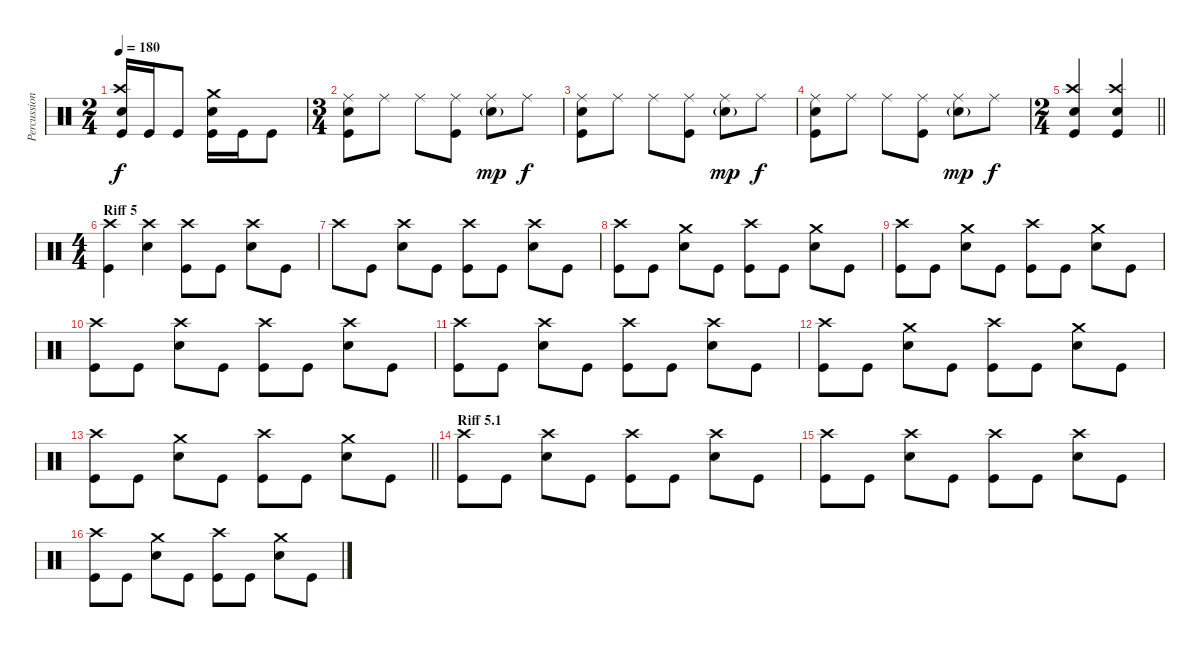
\track ("Percussion" "Percussion") {instrument percussion}
\staff {score}
\articulation defaults
\ts (2 4)
\tempo 180
\clef neutral
\ks c
("Snare (hit) 2" "Crash high (hit)" "Kick (hit)").16{dy f} "Kick (hit)".16 "Kick (hit)".8 ("Snare (hit) 2" "Crash medium (hit)" "Kick (hit)").16 "Kick (hit)".16 "Kick (hit)".8 |
\ts (3 4)
("Snare (hit) 2" "Ride (middle)" "Kick (hit)").8 "Ride (middle)".8 "Ride (middle)".8 ("Ride (middle)" "Kick (hit)").8 ("Ride (middle)" "Snare (hit) 2"{g}).8{dy mp} "Ride (middle)".8{dy f} |
("Snare (hit) 2" "Ride (middle)" "Kick (hit)").8 "Ride (middle)".8 "Ride (middle)".8 ("Ride (middle)" "Kick (hit)").8 ("Ride (middle)" "Snare (hit) 2"{g}).8{dy mp} "Ride (middle)".8{dy f} |
("Snare (hit) 2" "Ride (middle)" "Kick (hit)").8 "Ride (middle)".8 "Ride (middle)".8 ("Ride (middle)" "Kick (hit)").8 ("Ride (middle)" "Snare (hit) 2"{g}).8{dy mp} "Ride (middle)".8{dy f} |
\ts (2 4)
\barLineRight lightlight
("Kick (hit)" "Crash high (hit)" "Snare (hit) 2").4 ("Kick (hit)" "Crash high (hit)" "Snare (hit) 2").4 |
\ts (4 4)
\section ("" "Riff 5")
("Crash high (hit)" "Kick (hit)").4 ("Crash high (hit)" "Snare (hit) 2").4 ("Crash high (hit)" "Kick (hit)").8 "Kick (hit)".8 ("Crash high (hit)" "Snare (hit) 2").8 "Kick (hit)".8 |
"Crash high (hit)".8 "Kick (hit)".8 ("Snare (hit) 2" "Crash high (hit)").8 "Kick (hit)".8 ("Crash high (hit)" "Kick (hit)").8 "Kick (hit)".8 ("Crash high (hit)" "Snare (hit) 2").8 "Kick (hit)".8 |
("Crash high (hit)" "Kick (hit)").8 "Kick (hit)".8 ("Snare (hit) 2" "Crash medium (hit)").8 "Kick (hit)".8 ("Crash high (hit)" "Kick (hit)").8 "Kick (hit)".8 ("Snare (hit) 2" "Crash medium (hit)").8 "Kick (hit)".8 |
("Crash high (hit)" "Kick (hit)").8 "Kick (hit)".8 ("Snare (hit) 2" "Crash medium (hit)").8 "Kick (hit)".8 ("Crash high (hit)" "Kick (hit)").8 "Kick (hit)".8 ("Snare (hit) 2" "Crash medium (hit)").8 "Kick (hit)".8 |
("Crash high (hit)" "Kick (hit)").8 "Kick (hit)".8 ("Crash high (hit)" "Snare (hit) 2").8 "Kick (hit)".8 ("Crash high (hit)" "Kick (hit)").8 "Kick (hit)".8 ("Crash high (hit)" "Snare (hit) 2").8 "Kick (hit)".8 |
("Crash high (hit)" "Kick (hit)").8 "Kick (hit)".8 ("Crash high (hit)" "Snare (hit) 2").8 "Kick (hit)".8 ("Crash high (hit)" "Kick (hit)").8 "Kick (hit)".8 ("Crash high (hit)" "Snare (hit) 2").8 "Kick (hit)".8 |
("Crash high (hit)" "Kick (hit)").8 "Kick (hit)".8 ("Snare (hit) 2" "Crash medium (hit)").8 "Kick (hit)".8 ("Crash high (hit)" "Kick (hit)").8 "Kick (hit)".8 ("Snare (hit) 2" "Crash medium (hit)").8 "Kick (hit)".8 |
\barLineRight lightlight
("Crash high (hit)" "Kick (hit)").8 "Kick (hit)".8 ("Snare (hit) 2" "Crash medium (hit)").8 "Kick (hit)".8 ("Crash high (hit)" "Kick (hit)").8 "Kick (hit)".8 ("Snare (hit) 2" "Crash medium (hit)").8 "Kick (hit)".8 |
\section ("" "Riff 5.1")
("Crash high (hit)" "Kick (hit)").8 "Kick (hit)".8 ("Crash high (hit)" "Snare (hit) 2").8 "Kick (hit)".8 ("Crash high (hit)" "Kick (hit)").8 "Kick (hit)".8 ("Crash high (hit)" "Snare (hit) 2").8 "Kick (hit)".8 |
("Crash high (hit)" "Kick (hit)").8 "Kick (hit)".8 ("Crash high (hit)" "Snare (hit) 2").8 "Kick (hit)".8 ("Crash high (hit)" "Kick (hit)").8 "Kick (hit)".8 ("Crash high (hit)" "Snare (hit) 2").8 "Kick (hit)".8 |
("Crash high (hit)" "Kick (hit)").8 "Kick (hit)".8 ("Snare (hit) 2" "Crash medium (hit)").8 "Kick (hit)".8 ("Crash high (hit)" "Kick (hit)").8 "Kick (hit)".8 ("Snare (hit) 2" "Crash medium (hit)").8 "Kick (hit)".8
